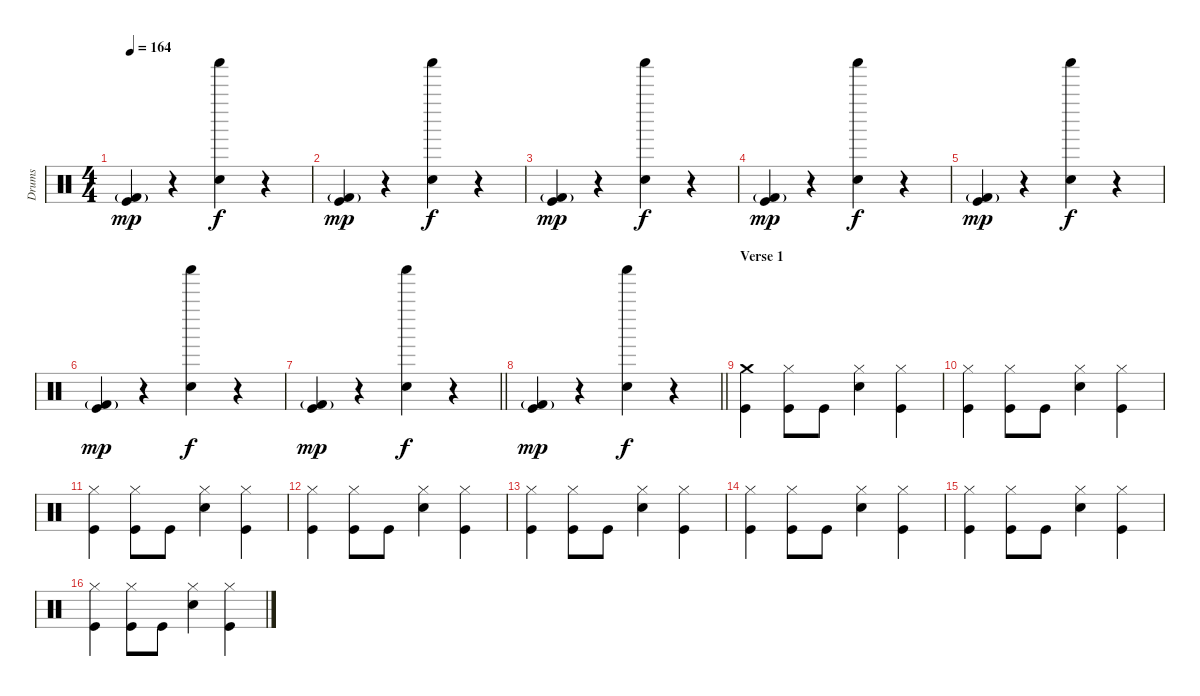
\track ("Drums" "Drums") {instrument percussion}
\staff {score}
\articulation defaults
\ts (4 4)
\tempo 164
\clef neutral
\ks c
("Kick (hit) 2"{g} "Kick (hit)").4{dy mp} r.4 ("Shaker (hit)" "Hand Clap (hit)").4{dy f} r.4 |
("Kick (hit) 2"{g} "Kick (hit)").4{dy mp} r.4 ("Shaker (hit)" "Hand Clap (hit)").4{dy f} r.4 |
("Kick (hit) 2"{g} "Kick (hit)").4{dy mp} r.4 ("Shaker (hit)" "Hand Clap (hit)").4{dy f} r.4 |
("Kick (hit) 2"{g} "Kick (hit)").4{dy mp} r.4 ("Shaker (hit)" "Hand Clap (hit)").4{dy f} r.4 |
("Kick (hit) 2"{g} "Kick (hit)").4{dy mp} r.4 ("Shaker (hit)" "Hand Clap (hit)").4{dy f} r.4 |
("Kick (hit) 2"{g} "Kick (hit)").4{dy mp} r.4 ("Shaker (hit)" "Hand Clap (hit)").4{dy f} r.4 |
\barLineRight lightlight
("Kick (hit) 2"{g} "Kick (hit)").4{dy mp} r.4 ("Shaker (hit)" "Hand Clap (hit)").4{dy f} r.4 |
\barLineRight lightlight
("Kick (hit) 2"{g} "Kick (hit)").4{dy mp} r.4 ("Shaker (hit)" "Hand Clap (hit)").4{dy f} r.4 |
\section ("" "Verse 1")
("Crash medium (hit)" "Kick (hit)").4 ("Hi-Hat (closed)" "Kick (hit)").8 "Kick (hit)".8 ("Hi-Hat (closed)" "Electric Snare (hit)").4 ("Hi-Hat (closed)" "Kick (hit)").4 |
("Hi-Hat (closed)" "Kick (hit)").4 ("Hi-Hat (closed)" "Kick (hit)").8 "Kick (hit)".8 ("Hi-Hat (closed)" "Electric Snare (hit)").4 ("Hi-Hat (closed)" "Kick (hit)").4 |
("Hi-Hat (closed)" "Kick (hit)").4 ("Hi-Hat (closed)" "Kick (hit)").8 "Kick (hit)".8 ("Hi-Hat (closed)" "Electric Snare (hit)").4 ("Hi-Hat (closed)" "Kick (hit)").4 |
("Hi-Hat (closed)" "Kick (hit)").4 ("Hi-Hat (closed)" "Kick (hit)").8 "Kick (hit)".8 ("Hi-Hat (closed)" "Electric Snare (hit)").4 ("Hi-Hat (closed)" "Kick (hit)").4 |
("Hi-Hat (closed)" "Kick (hit)").4 ("Hi-Hat (closed)" "Kick (hit)").8 "Kick (hit)".8 ("Hi-Hat (closed)" "Electric Snare (hit)").4 ("Hi-Hat (closed)" "Kick (hit)").4 |
("Hi-Hat (closed)" "Kick (hit)").4 ("Hi-Hat (closed)" "Kick (hit)").8 "Kick (hit)".8 ("Hi-Hat (closed)" "Electric Snare (hit)").4 ("Hi-Hat (closed)" "Kick (hit)").4 |
("Hi-Hat (closed)" "Kick (hit)").4 ("Hi-Hat (closed)" "Kick (hit)").8 "Kick (hit)".8 ("Hi-Hat (closed)" "Electric Snare (hit)").4 ("Hi-Hat (closed)" "Kick (hit)").4 |
("Hi-Hat (closed)" "Kick (hit)").4 ("Hi-Hat (closed)" "Kick (hit)").8 "Kick (hit)".8 ("Hi-Hat (closed)" "Electric Snare (hit)").4 ("Hi-Hat (closed)" "Kick (hit)").4
